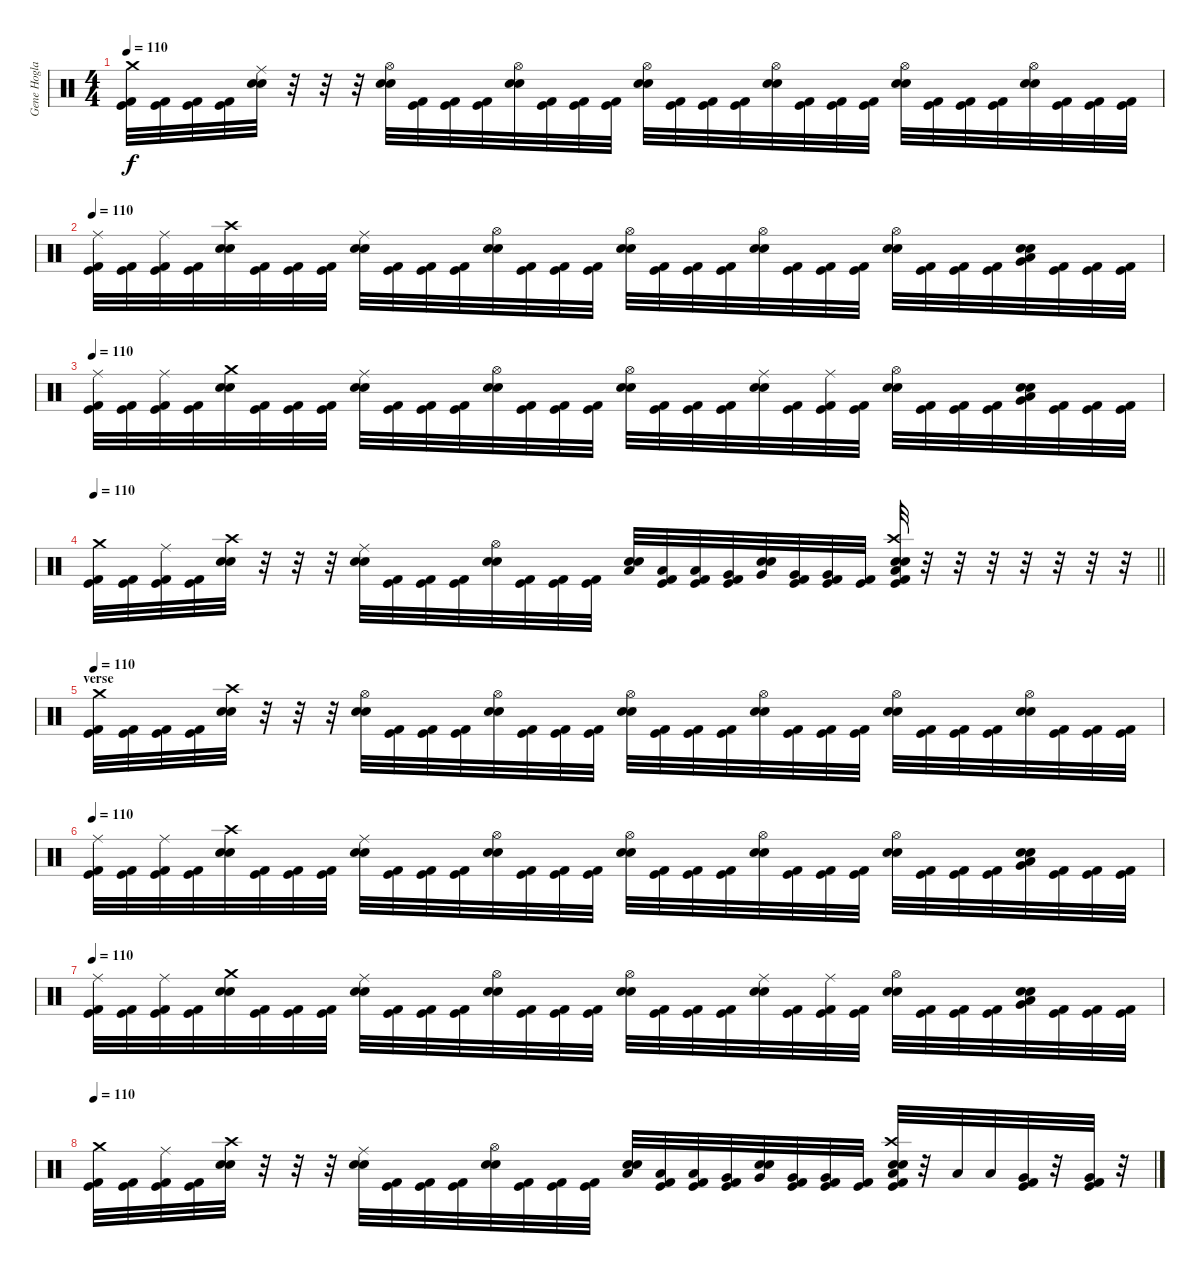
\track ("Gene Hoglan" "Gene Hogla") {instrument percussion}
\staff {score}
\articulation defaults
\ts (4 4)
\tempo 110
\clef neutral
\ks c
("Crash medium (hit)" "Kick (hit) 2" "Kick (hit)").32{dy f} ("Kick (hit) 2" "Kick (hit)").32 ("Kick (hit) 2" "Kick (hit)").32 ("Kick (hit) 2" "Kick (hit)").32 ("Ride (middle)" "Snare (hit) 2" "Electric Snare (hit)").32 r.32 r.32 r.32 ("Hi-Hat (open)" "Snare (hit) 2" "Electric Snare (hit)").32 ("Kick (hit) 2" "Kick (hit)").32 ("Kick (hit) 2" "Kick (hit)").32 ("Kick (hit) 2" "Kick (hit)").32 ("Hi-Hat (open)" "Snare (hit) 2" "Electric Snare (hit)").32 ("Kick (hit) 2" "Kick (hit)").32 ("Kick (hit) 2" "Kick (hit)").32 ("Kick (hit) 2" "Kick (hit)").32 ("Hi-Hat (open)" "Snare (hit) 2" "Electric Snare (hit)").32 ("Kick (hit) 2" "Kick (hit)").32 ("Kick (hit) 2" "Kick (hit)").32 ("Kick (hit) 2" "Kick (hit)").32 ("Hi-Hat (open)" "Snare (hit) 2" "Electric Snare (hit)").32 ("Kick (hit) 2" "Kick (hit)").32 ("Kick (hit) 2" "Kick (hit)").32 ("Kick (hit) 2" "Kick (hit)").32 ("Hi-Hat (open)" "Snare (hit) 2" "Electric Snare (hit)").32 ("Kick (hit) 2" "Kick (hit)").32 ("Kick (hit) 2" "Kick (hit)").32 ("Kick (hit) 2" "Kick (hit)").32 ("Hi-Hat (open)" "Snare (hit) 2" "Electric Snare (hit)").32 ("Kick (hit) 2" "Kick (hit)").32 ("Kick (hit) 2" "Kick (hit)").32 ("Kick (hit) 2" "Kick (hit)").32 |
\tempo 110
("Ride (middle)" "Kick (hit) 2" "Kick (hit)").32 ("Kick (hit) 2" "Kick (hit)").32 ("Ride (middle)" "Kick (hit) 2" "Kick (hit)").32 ("Kick (hit) 2" "Kick (hit)").32 ("Crash high (hit)" "Snare (hit) 2" "Electric Snare (hit)").32 ("Kick (hit)" "Kick (hit) 2").32 ("Kick (hit)" "Kick (hit) 2").32 ("Kick (hit)" "Kick (hit) 2").32 ("Ride (middle)" "Snare (hit) 2" "Electric Snare (hit)").32 ("Kick (hit) 2" "Kick (hit)").32 ("Kick (hit) 2" "Kick (hit)").32 ("Kick (hit) 2" "Kick (hit)").32 ("Hi-Hat (open)" "Snare (hit) 2" "Electric Snare (hit)").32 ("Kick (hit) 2" "Kick (hit)").32 ("Kick (hit) 2" "Kick (hit)").32 ("Kick (hit) 2" "Kick (hit)").32 ("Hi-Hat (open)" "Snare (hit) 2" "Electric Snare (hit)").32 ("Kick (hit) 2" "Kick (hit)").32 ("Kick (hit) 2" "Kick (hit)").32 ("Kick (hit) 2" "Kick (hit)").32 ("Hi-Hat (open)" "Snare (hit) 2" "Electric Snare (hit)").32 ("Kick (hit) 2" "Kick (hit)").32 ("Kick (hit) 2" "Kick (hit)").32 ("Kick (hit) 2" "Kick (hit)").32 ("Hi-Hat (open)" "Snare (hit) 2" "Electric Snare (hit)").32 ("Kick (hit) 2" "Kick (hit)").32 ("Kick (hit) 2" "Kick (hit)").32 ("Kick (hit) 2" "Kick (hit)").32 ("Low Floor Tom (hit)" "Very Low Tom (hit)" "Snare (hit) 2" "Electric Snare (hit)").32 ("Kick (hit) 2" "Kick (hit)").32 ("Kick (hit) 2" "Kick (hit)").32 ("Kick (hit) 2" "Kick (hit)").32 |
\tempo 110
("Ride (middle)" "Kick (hit) 2" "Kick (hit)").32 ("Kick (hit) 2" "Kick (hit)").32 ("Ride (middle)" "Kick (hit) 2" "Kick (hit)").32 ("Kick (hit) 2" "Kick (hit)").32 ("Crash medium (hit)" "Snare (hit) 2" "Electric Snare (hit)").32 ("Kick (hit)" "Kick (hit) 2").32 ("Kick (hit)" "Kick (hit) 2").32 ("Kick (hit)" "Kick (hit) 2").32 ("Ride (middle)" "Snare (hit) 2" "Electric Snare (hit)").32 ("Kick (hit) 2" "Kick (hit)").32 ("Kick (hit) 2" "Kick (hit)").32 ("Kick (hit) 2" "Kick (hit)").32 ("Hi-Hat (open)" "Snare (hit) 2" "Electric Snare (hit)").32 ("Kick (hit) 2" "Kick (hit)").32 ("Kick (hit) 2" "Kick (hit)").32 ("Kick (hit) 2" "Kick (hit)").32 ("Hi-Hat (open)" "Snare (hit) 2" "Electric Snare (hit)").32 ("Kick (hit) 2" "Kick (hit)").32 ("Kick (hit) 2" "Kick (hit)").32 ("Kick (hit) 2" "Kick (hit)").32 ("Ride (middle)" "Snare (hit) 2" "Electric Snare (hit)").32 ("Kick (hit) 2" "Kick (hit)").32 ("Ride (middle)" "Kick (hit) 2" "Kick (hit)").32 ("Kick (hit) 2" "Kick (hit)").32 ("Hi-Hat (open)" "Snare (hit) 2" "Electric Snare (hit)").32 ("Kick (hit) 2" "Kick (hit)").32 ("Kick (hit) 2" "Kick (hit)").32 ("Kick (hit) 2" "Kick (hit)").32 ("Low Floor Tom (hit)" "Very Low Tom (hit)" "Snare (hit) 2" "Electric Snare (hit)").32 ("Kick (hit) 2" "Kick (hit)").32 ("Kick (hit) 2" "Kick (hit)").32 ("Kick (hit) 2" "Kick (hit)").32 |
\tempo 110
\barLineRight lightlight
("Crash medium (hit)" "Kick (hit) 2" "Kick (hit)").32 ("Kick (hit) 2" "Kick (hit)").32 ("Ride (middle)" "Kick (hit) 2" "Kick (hit)").32 ("Kick (hit) 2" "Kick (hit)").32 ("Crash high (hit)" "Snare (hit) 2" "Electric Snare (hit)").32 r.32 r.32 r.32 ("Ride (middle)" "Snare (hit) 2" "Electric Snare (hit)").32 ("Kick (hit) 2" "Kick (hit)").32 ("Kick (hit) 2" "Kick (hit)").32 ("Kick (hit) 2" "Kick (hit)").32 ("Hi-Hat (open)" "Snare (hit) 2" "Electric Snare (hit)").32 ("Kick (hit) 2" "Kick (hit)").32 ("Kick (hit) 2" "Kick (hit)").32 ("Kick (hit) 2" "Kick (hit)").32 ("Low Tom (hit)" "Snare (hit) 2" "Electric Snare (hit)").32 ("Low Tom (hit)" "Kick (hit) 2" "Kick (hit)").32 ("Low Tom (hit)" "Kick (hit) 2" "Kick (hit)").32 ("Very Low Tom (hit)" "Kick (hit) 2" "Kick (hit)").32 ("Very Low Tom (hit)" "Snare (hit) 2" "Electric Snare (hit)").32 ("Very Low Tom (hit)" "Kick (hit) 2" "Kick (hit)").32 ("Very Low Tom (hit)" "Kick (hit) 2" "Kick (hit)").32 ("Kick (hit) 2" "Kick (hit)").32 ("Kick (hit)" "Crash high (hit)" "Low Floor Tom (hit)" "Snare (hit) 2" "Electric Snare (hit)" "Kick (hit) 2").32 r.32 r.32 r.32 r.32 r.32 r.32 r.32 |
\section ("" "verse")
\tempo 110
("Crash medium (hit)" "Kick (hit) 2" "Kick (hit)").32 ("Kick (hit) 2" "Kick (hit)").32 ("Kick (hit) 2" "Kick (hit)").32 ("Kick (hit) 2" "Kick (hit)").32 ("Crash high (hit)" "Snare (hit) 2" "Electric Snare (hit)").32 r.32 r.32 r.32 ("Hi-Hat (open)" "Snare (hit) 2" "Electric Snare (hit)").32 ("Kick (hit) 2" "Kick (hit)").32 ("Kick (hit) 2" "Kick (hit)").32 ("Kick (hit) 2" "Kick (hit)").32 ("Hi-Hat (open)" "Snare (hit) 2" "Electric Snare (hit)").32 ("Kick (hit) 2" "Kick (hit)").32 ("Kick (hit) 2" "Kick (hit)").32 ("Kick (hit) 2" "Kick (hit)").32 ("Hi-Hat (open)" "Snare (hit) 2" "Electric Snare (hit)").32 ("Kick (hit) 2" "Kick (hit)").32 ("Kick (hit) 2" "Kick (hit)").32 ("Kick (hit) 2" "Kick (hit)").32 ("Hi-Hat (open)" "Snare (hit) 2" "Electric Snare (hit)").32 ("Kick (hit) 2" "Kick (hit)").32 ("Kick (hit) 2" "Kick (hit)").32 ("Kick (hit) 2" "Kick (hit)").32 ("Hi-Hat (open)" "Snare (hit) 2" "Electric Snare (hit)").32 ("Kick (hit) 2" "Kick (hit)").32 ("Kick (hit) 2" "Kick (hit)").32 ("Kick (hit) 2" "Kick (hit)").32 ("Hi-Hat (open)" "Snare (hit) 2" "Electric Snare (hit)").32 ("Kick (hit) 2" "Kick (hit)").32 ("Kick (hit) 2" "Kick (hit)").32 ("Kick (hit) 2" "Kick (hit)").32 |
\tempo 110
("Ride (middle)" "Kick (hit) 2" "Kick (hit)").32 ("Kick (hit) 2" "Kick (hit)").32 ("Ride (middle)" "Kick (hit) 2" "Kick (hit)").32 ("Kick (hit) 2" "Kick (hit)").32 ("Crash high (hit)" "Snare (hit) 2" "Electric Snare (hit)").32 ("Kick (hit)" "Kick (hit) 2").32 ("Kick (hit)" "Kick (hit) 2").32 ("Kick (hit)" "Kick (hit) 2").32 ("Ride (middle)" "Snare (hit) 2" "Electric Snare (hit)").32 ("Kick (hit) 2" "Kick (hit)").32 ("Kick (hit) 2" "Kick (hit)").32 ("Kick (hit) 2" "Kick (hit)").32 ("Hi-Hat (open)" "Snare (hit) 2" "Electric Snare (hit)").32 ("Kick (hit) 2" "Kick (hit)").32 ("Kick (hit) 2" "Kick (hit)").32 ("Kick (hit) 2" "Kick (hit)").32 ("Hi-Hat (open)" "Snare (hit) 2" "Electric Snare (hit)").32 ("Kick (hit) 2" "Kick (hit)").32 ("Kick (hit) 2" "Kick (hit)").32 ("Kick (hit) 2" "Kick (hit)").32 ("Hi-Hat (open)" "Snare (hit) 2" "Electric Snare (hit)").32 ("Kick (hit) 2" "Kick (hit)").32 ("Kick (hit) 2" "Kick (hit)").32 ("Kick (hit) 2" "Kick (hit)").32 ("Hi-Hat (open)" "Snare (hit) 2" "Electric Snare (hit)").32 ("Kick (hit) 2" "Kick (hit)").32 ("Kick (hit) 2" "Kick (hit)").32 ("Kick (hit) 2" "Kick (hit)").32 ("Low Floor Tom (hit)" "Very Low Tom (hit)" "Snare (hit) 2" "Electric Snare (hit)").32 ("Kick (hit) 2" "Kick (hit)").32 ("Kick (hit) 2" "Kick (hit)").32 ("Kick (hit) 2" "Kick (hit)").32 |
\tempo 110
("Ride (middle)" "Kick (hit) 2" "Kick (hit)").32 ("Kick (hit) 2" "Kick (hit)").32 ("Ride (middle)" "Kick (hit) 2" "Kick (hit)").32 ("Kick (hit) 2" "Kick (hit)").32 ("Crash medium (hit)" "Snare (hit) 2" "Electric Snare (hit)").32 ("Kick (hit)" "Kick (hit) 2").32 ("Kick (hit)" "Kick (hit) 2").32 ("Kick (hit)" "Kick (hit) 2").32 ("Ride (middle)" "Snare (hit) 2" "Electric Snare (hit)").32 ("Kick (hit) 2" "Kick (hit)").32 ("Kick (hit) 2" "Kick (hit)").32 ("Kick (hit) 2" "Kick (hit)").32 ("Hi-Hat (open)" "Snare (hit) 2" "Electric Snare (hit)").32 ("Kick (hit) 2" "Kick (hit)").32 ("Kick (hit) 2" "Kick (hit)").32 ("Kick (hit) 2" "Kick (hit)").32 ("Hi-Hat (open)" "Snare (hit) 2" "Electric Snare (hit)").32 ("Kick (hit) 2" "Kick (hit)").32 ("Kick (hit) 2" "Kick (hit)").32 ("Kick (hit) 2" "Kick (hit)").32 ("Ride (middle)" "Snare (hit) 2" "Electric Snare (hit)").32 ("Kick (hit) 2" "Kick (hit)").32 ("Ride (middle)" "Kick (hit) 2" "Kick (hit)").32 ("Kick (hit) 2" "Kick (hit)").32 ("Hi-Hat (open)" "Snare (hit) 2" "Electric Snare (hit)").32 ("Kick (hit) 2" "Kick (hit)").32 ("Kick (hit) 2" "Kick (hit)").32 ("Kick (hit) 2" "Kick (hit)").32 ("Low Floor Tom (hit)" "Very Low Tom (hit)" "Snare (hit) 2" "Electric Snare (hit)").32 ("Kick (hit) 2" "Kick (hit)").32 ("Kick (hit) 2" "Kick (hit)").32 ("Kick (hit) 2" "Kick (hit)").32 |
\tempo 110
("Crash medium (hit)" "Kick (hit) 2" "Kick (hit)").32 ("Kick (hit) 2" "Kick (hit)").32 ("Ride (middle)" "Kick (hit) 2" "Kick (hit)").32 ("Kick (hit) 2" "Kick (hit)").32 ("Crash high (hit)" "Snare (hit) 2" "Electric Snare (hit)").32 r.32 r.32 r.32 ("Ride (middle)" "Snare (hit) 2" "Electric Snare (hit)").32 ("Kick (hit) 2" "Kick (hit)").32 ("Kick (hit) 2" "Kick (hit)").32 ("Kick (hit) 2" "Kick (hit)").32 ("Hi-Hat (open)" "Snare (hit) 2" "Electric Snare (hit)").32 ("Kick (hit) 2" "Kick (hit)").32 ("Kick (hit) 2" "Kick (hit)").32 ("Kick (hit) 2" "Kick (hit)").32 ("Low Tom (hit)" "Snare (hit) 2" "Electric Snare (hit)").32 ("Low Tom (hit)" "Kick (hit) 2" "Kick (hit)").32 ("Low Tom (hit)" "Kick (hit) 2" "Kick (hit)").32 ("Very Low Tom (hit)" "Kick (hit) 2" "Kick (hit)").32 ("Very Low Tom (hit)" "Snare (hit) 2" "Electric Snare (hit)").32 ("Very Low Tom (hit)" "Kick (hit) 2" "Kick (hit)").32 ("Very Low Tom (hit)" "Kick (hit) 2" "Kick (hit)").32 ("Kick (hit) 2" "Kick (hit)").32 ("Kick (hit)" "Crash high (hit)" "Low Floor Tom (hit)" "Snare (hit) 2" "Electric Snare (hit)" "Kick (hit) 2").32 r.32 "Low Tom (hit)".32 "Low Tom (hit)".32 ("Very Low Tom (hit)" "Kick (hit)" "Kick (hit) 2").32 r.32 ("Very Low Tom (hit)" "Kick (hit)" "Kick (hit) 2").32 r.32
